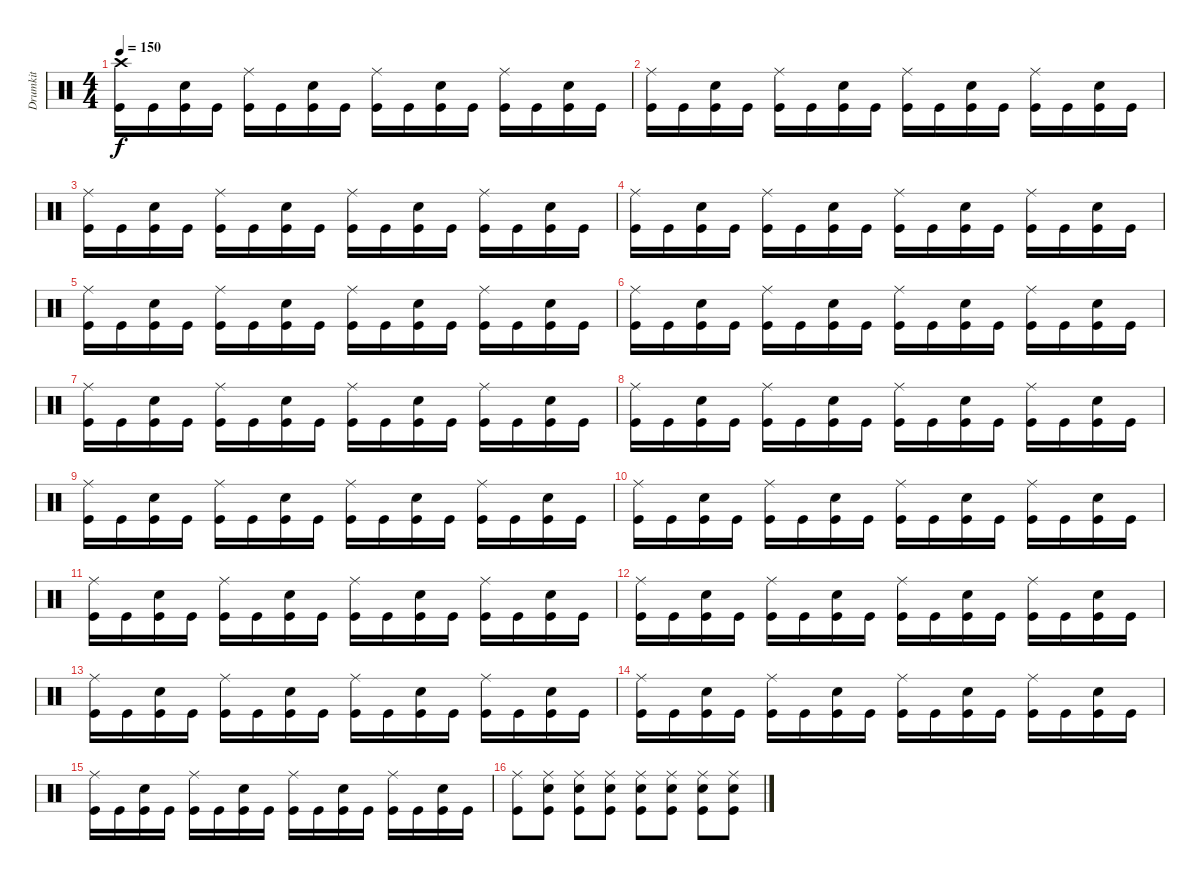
\track ("Drumkit" "Drumkit") {instrument percussion}
\staff {score}
\articulation defaults
\ts (4 4)
\tempo 150
\clef neutral
\ks c
("Crash high (hit)" "Kick (hit)").16{dy f} "Kick (hit)".16 ("Snare (hit) 2" "Kick (hit)").16 "Kick (hit)".16 ("Ride (middle)" "Kick (hit)").16 "Kick (hit)".16 ("Snare (hit) 2" "Kick (hit)").16 "Kick (hit)".16 ("Ride (middle)" "Kick (hit)").16 "Kick (hit)".16 ("Snare (hit) 2" "Kick (hit)").16 "Kick (hit)".16 ("Ride (middle)" "Kick (hit)").16 "Kick (hit)".16 ("Snare (hit) 2" "Kick (hit)").16 "Kick (hit)".16 |
("Ride (middle)" "Kick (hit)").16 "Kick (hit)".16 ("Snare (hit) 2" "Kick (hit)").16 "Kick (hit)".16 ("Ride (middle)" "Kick (hit)").16 "Kick (hit)".16 ("Snare (hit) 2" "Kick (hit)").16 "Kick (hit)".16 ("Ride (middle)" "Kick (hit)").16 "Kick (hit)".16 ("Snare (hit) 2" "Kick (hit)").16 "Kick (hit)".16 ("Ride (middle)" "Kick (hit)").16 "Kick (hit)".16 ("Snare (hit) 2" "Kick (hit)").16 "Kick (hit)".16 |
("Ride (middle)" "Kick (hit)").16 "Kick (hit)".16 ("Snare (hit) 2" "Kick (hit)").16 "Kick (hit)".16 ("Ride (middle)" "Kick (hit)").16 "Kick (hit)".16 ("Snare (hit) 2" "Kick (hit)").16 "Kick (hit)".16 ("Ride (middle)" "Kick (hit)").16 "Kick (hit)".16 ("Snare (hit) 2" "Kick (hit)").16 "Kick (hit)".16 ("Ride (middle)" "Kick (hit)").16 "Kick (hit)".16 ("Snare (hit) 2" "Kick (hit)").16 "Kick (hit)".16 |
("Ride (middle)" "Kick (hit)").16 "Kick (hit)".16 ("Snare (hit) 2" "Kick (hit)").16 "Kick (hit)".16 ("Ride (middle)" "Kick (hit)").16 "Kick (hit)".16 ("Snare (hit) 2" "Kick (hit)").16 "Kick (hit)".16 ("Ride (middle)" "Kick (hit)").16 "Kick (hit)".16 ("Snare (hit) 2" "Kick (hit)").16 "Kick (hit)".16 ("Ride (middle)" "Kick (hit)").16 "Kick (hit)".16 ("Snare (hit) 2" "Kick (hit)").16 "Kick (hit)".16 |
("Ride (middle)" "Kick (hit)").16 "Kick (hit)".16 ("Snare (hit) 2" "Kick (hit)").16 "Kick (hit)".16 ("Ride (middle)" "Kick (hit)").16 "Kick (hit)".16 ("Snare (hit) 2" "Kick (hit)").16 "Kick (hit)".16 ("Ride (middle)" "Kick (hit)").16 "Kick (hit)".16 ("Snare (hit) 2" "Kick (hit)").16 "Kick (hit)".16 ("Ride (middle)" "Kick (hit)").16 "Kick (hit)".16 ("Snare (hit) 2" "Kick (hit)").16 "Kick (hit)".16 |
("Ride (middle)" "Kick (hit)").16 "Kick (hit)".16 ("Snare (hit) 2" "Kick (hit)").16 "Kick (hit)".16 ("Ride (middle)" "Kick (hit)").16 "Kick (hit)".16 ("Snare (hit) 2" "Kick (hit)").16 "Kick (hit)".16 ("Ride (middle)" "Kick (hit)").16 "Kick (hit)".16 ("Snare (hit) 2" "Kick (hit)").16 "Kick (hit)".16 ("Ride (middle)" "Kick (hit)").16 "Kick (hit)".16 ("Snare (hit) 2" "Kick (hit)").16 "Kick (hit)".16 |
("Ride (middle)" "Kick (hit)").16 "Kick (hit)".16 ("Snare (hit) 2" "Kick (hit)").16 "Kick (hit)".16 ("Ride (middle)" "Kick (hit)").16 "Kick (hit)".16 ("Snare (hit) 2" "Kick (hit)").16 "Kick (hit)".16 ("Ride (middle)" "Kick (hit)").16 "Kick (hit)".16 ("Snare (hit) 2" "Kick (hit)").16 "Kick (hit)".16 ("Ride (middle)" "Kick (hit)").16 "Kick (hit)".16 ("Snare (hit) 2" "Kick (hit)").16 "Kick (hit)".16 |
("Ride (middle)" "Kick (hit)").16 "Kick (hit)".16 ("Snare (hit) 2" "Kick (hit)").16 "Kick (hit)".16 ("Ride (middle)" "Kick (hit)").16 "Kick (hit)".16 ("Snare (hit) 2" "Kick (hit)").16 "Kick (hit)".16 ("Ride (middle)" "Kick (hit)").16 "Kick (hit)".16 ("Snare (hit) 2" "Kick (hit)").16 "Kick (hit)".16 ("Ride (middle)" "Kick (hit)").16 "Kick (hit)".16 ("Snare (hit) 2" "Kick (hit)").16 "Kick (hit)".16 |
("Ride (middle)" "Kick (hit)").16 "Kick (hit)".16 ("Snare (hit) 2" "Kick (hit)").16 "Kick (hit)".16 ("Ride (middle)" "Kick (hit)").16 "Kick (hit)".16 ("Snare (hit) 2" "Kick (hit)").16 "Kick (hit)".16 ("Ride (middle)" "Kick (hit)").16 "Kick (hit)".16 ("Snare (hit) 2" "Kick (hit)").16 "Kick (hit)".16 ("Ride (middle)" "Kick (hit)").16 "Kick (hit)".16 ("Snare (hit) 2" "Kick (hit)").16 "Kick (hit)".16 |
("Ride (middle)" "Kick (hit)").16 "Kick (hit)".16 ("Snare (hit) 2" "Kick (hit)").16 "Kick (hit)".16 ("Ride (middle)" "Kick (hit)").16 "Kick (hit)".16 ("Snare (hit) 2" "Kick (hit)").16 "Kick (hit)".16 ("Ride (middle)" "Kick (hit)").16 "Kick (hit)".16 ("Snare (hit) 2" "Kick (hit)").16 "Kick (hit)".16 ("Ride (middle)" "Kick (hit)").16 "Kick (hit)".16 ("Snare (hit) 2" "Kick (hit)").16 "Kick (hit)".16 |
("Ride (middle)" "Kick (hit)").16 "Kick (hit)".16 ("Snare (hit) 2" "Kick (hit)").16 "Kick (hit)".16 ("Ride (middle)" "Kick (hit)").16 "Kick (hit)".16 ("Snare (hit) 2" "Kick (hit)").16 "Kick (hit)".16 ("Ride (middle)" "Kick (hit)").16 "Kick (hit)".16 ("Snare (hit) 2" "Kick (hit)").16 "Kick (hit)".16 ("Ride (middle)" "Kick (hit)").16 "Kick (hit)".16 ("Snare (hit) 2" "Kick (hit)").16 "Kick (hit)".16 |
("Ride (middle)" "Kick (hit)").16 "Kick (hit)".16 ("Snare (hit) 2" "Kick (hit)").16 "Kick (hit)".16 ("Ride (middle)" "Kick (hit)").16 "Kick (hit)".16 ("Snare (hit) 2" "Kick (hit)").16 "Kick (hit)".16 ("Ride (middle)" "Kick (hit)").16 "Kick (hit)".16 ("Snare (hit) 2" "Kick (hit)").16 "Kick (hit)".16 ("Ride (middle)" "Kick (hit)").16 "Kick (hit)".16 ("Snare (hit) 2" "Kick (hit)").16 "Kick (hit)".16 |
("Ride (middle)" "Kick (hit)").16 "Kick (hit)".16 ("Snare (hit) 2" "Kick (hit)").16 "Kick (hit)".16 ("Ride (middle)" "Kick (hit)").16 "Kick (hit)".16 ("Snare (hit) 2" "Kick (hit)").16 "Kick (hit)".16 ("Ride (middle)" "Kick (hit)").16 "Kick (hit)".16 ("Snare (hit) 2" "Kick (hit)").16 "Kick (hit)".16 ("Ride (middle)" "Kick (hit)").16 "Kick (hit)".16 ("Snare (hit) 2" "Kick (hit)").16 "Kick (hit)".16 |
("Ride (middle)" "Kick (hit)").16 "Kick (hit)".16 ("Snare (hit) 2" "Kick (hit)").16 "Kick (hit)".16 ("Ride (middle)" "Kick (hit)").16 "Kick (hit)".16 ("Snare (hit) 2" "Kick (hit)").16 "Kick (hit)".16 ("Ride (middle)" "Kick (hit)").16 "Kick (hit)".16 ("Snare (hit) 2" "Kick (hit)").16 "Kick (hit)".16 ("Ride (middle)" "Kick (hit)").16 "Kick (hit)".16 ("Snare (hit) 2" "Kick (hit)").16 "Kick (hit)".16 |
("Ride (middle)" "Kick (hit)").16 "Kick (hit)".16 ("Snare (hit) 2" "Kick (hit)").16 "Kick (hit)".16 ("Ride (middle)" "Kick (hit)").16 "Kick (hit)".16 ("Snare (hit) 2" "Kick (hit)").16 "Kick (hit)".16 ("Ride (middle)" "Kick (hit)").16 "Kick (hit)".16 ("Snare (hit) 2" "Kick (hit)").16 "Kick (hit)".16 ("Ride (middle)" "Kick (hit)").16 "Kick (hit)".16 ("Snare (hit) 2" "Kick (hit)").16 "Kick (hit)".16 |
("Ride (middle)" "Kick (hit)").8 ("Ride (middle)" "Snare (hit) 2" "Kick (hit)").8 ("Ride (middle)" "Snare (hit) 2" "Kick (hit)").8 ("Ride (middle)" "Snare (hit) 2" "Kick (hit)").8 ("Ride (middle)" "Snare (hit) 2" "Kick (hit)").8 ("Ride (middle)" "Snare (hit) 2" "Kick (hit)").8 ("Ride (middle)" "Snare (hit) 2" "Kick (hit)").8 ("Ride (middle)" "Snare (hit) 2" "Kick (hit)").8
